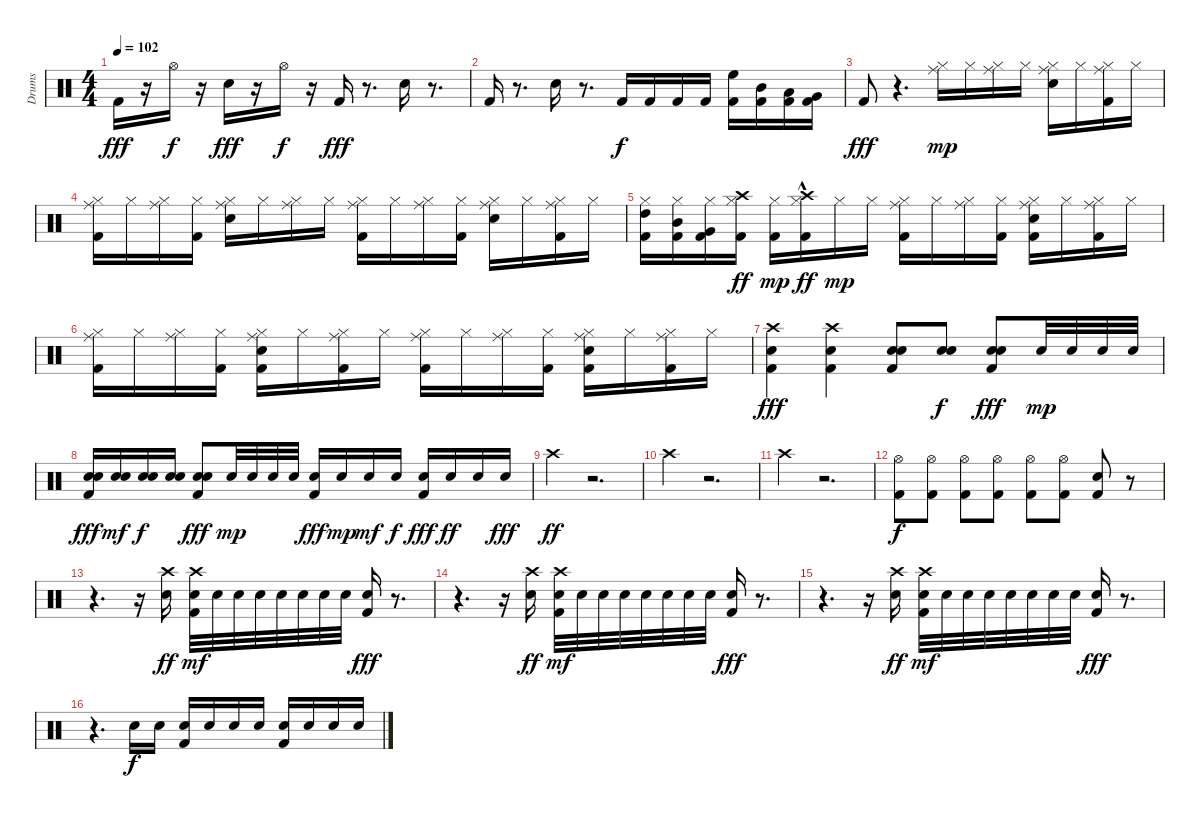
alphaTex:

\track ("Drums" "Drums") {instrument percussion}
\staff {score}
\articulation defaults
\ts (4 4)
\tempo 102
\clef neutral
\ks c "Kick (hit) 2".16{dy fff}
r.16 "Hi-Hat (open)".16{dy f} r.16 "Snare (hit) 2".16{dy fff} r.16 "Hi-Hat (open)".16{dy f} r.16 "Kick (hit) 2".16{dy fff} r.8{d} "Snare (hit) 2".16 r.8{d} |
"Kick (hit) 2".16 r.8{d} "Snare (hit) 2".16 r.8{d} "Kick (hit) 2".16{dy f} "Kick (hit) 2".16 "Kick (hit) 2".16 "Kick (hit) 2".16 ("Kick (hit) 2" "High Floor Tom (hit)").16 ("Kick (hit) 2" "Mid Tom (hit)").16 ("Kick (hit) 2" "Low Tom (hit)").16 ("Kick (hit) 2" "Very Low Tom (hit)").16 |
"Kick (hit) 2".8{dy fff} r.4{d} ("Ride (middle)" "Hi-Hat (closed)").16{dy mp} "Hi-Hat (closed)".16 ("Ride (middle)" "Hi-Hat (closed)").16 "Hi-Hat (closed)".16 ("Snare (hit) 2" "Ride (middle)" "Hi-Hat (closed)").16 "Hi-Hat (closed)".16 ("Ride (middle)" "Kick (hit) 2" "Hi-Hat (closed)").16 "Hi-Hat (closed)".16 |
("Ride (middle)" "Kick (hit) 2" "Hi-Hat (closed)").16 "Hi-Hat (closed)".16 ("Ride (middle)" "Hi-Hat (closed)").16 ("Kick (hit) 2" "Hi-Hat (closed)").16 ("Ride (middle)" "Snare (hit) 2" "Hi-Hat (closed)").16 "Hi-Hat (closed)".16 ("Ride (middle)" "Hi-Hat (closed)").16 "Hi-Hat (closed)".16 ("Ride (middle)" "Kick (hit) 2" "Hi-Hat (closed)").16 "Hi-Hat (closed)".16 ("Ride (middle)" "Hi-Hat (closed)").16 ("Kick (hit) 2" "Hi-Hat (closed)").16 ("Ride (middle)" "Snare (hit) 2" "Hi-Hat (closed)").16 "Hi-Hat (closed)".16 ("Ride (middle)" "Kick (hit) 2" "Hi-Hat (closed)").16 "Hi-Hat (closed)".16 |
("Kick (hit) 2" "High Tom (hit)" "Hi-Hat (closed)").16 ("Kick (hit) 2" "Mid Tom (hit)" "Hi-Hat (closed)").16 ("Kick (hit) 2" "Very Low Tom (hit)" "Hi-Hat (closed)").16 ("Kick (hit) 2" "Hi-Hat (closed)" "Crash high (hit)").16{dy ff} ("Kick (hit) 2" "Hi-Hat (closed)").16{dy mp} ("Kick (hit) 2"{hac} "Hi-Hat (closed)" "Crash high (hit)"{hac}).16{dy ff} "Hi-Hat (closed)".16{dy mp} "Hi-Hat (closed)".16 ("Kick (hit) 2" "Ride (middle)" "Hi-Hat (closed)").16 "Hi-Hat (closed)".16 ("Ride (middle)" "Hi-Hat (closed)").16 ("Kick (hit) 2" "Hi-Hat (closed)").16 ("Snare (hit) 2" "Ride (middle)" "Kick (hit) 2" "Hi-Hat (closed)").16 "Hi-Hat (closed)".16 ("Ride (middle)" "Kick (hit) 2" "Hi-Hat (closed)").16 "Hi-Hat (closed)".16 |
("Ride (middle)" "Kick (hit) 2" "Hi-Hat (closed)").16 "Hi-Hat (closed)".16 ("Ride (middle)" "Hi-Hat (closed)").16 ("Kick (hit) 2" "Hi-Hat (closed)").16 ("Ride (middle)" "Snare (hit) 2" "Kick (hit) 2" "Hi-Hat (closed)").16 "Hi-Hat (closed)".16 ("Ride (middle)" "Kick (hit) 2" "Hi-Hat (closed)").16 "Hi-Hat (closed)".16 ("Ride (middle)" "Kick (hit) 2" "Hi-Hat (closed)").16 "Hi-Hat (closed)".16 ("Ride (middle)" "Hi-Hat (closed)").16 ("Kick (hit) 2" "Hi-Hat (closed)").16 ("Ride (middle)" "Snare (hit) 2" "Kick (hit) 2" "Hi-Hat (closed)").16 "Hi-Hat (closed)".16 ("Ride (middle)" "Kick (hit) 2" "Hi-Hat (closed)").16 "Hi-Hat (closed)".16 |
("Crash high (hit)" "Kick (hit) 2" "Snare (hit) 2").4{dy fff} ("Crash high (hit)" "Kick (hit) 2" "Snare (hit) 2").4 ("Snare (hit) 2" "Kick (hit) 2" "Electric Snare (hit)").8 ("Snare (hit) 2" "Electric Snare (hit)").8{dy f} ("Snare (hit) 2" "Kick (hit) 2" "Electric Snare (hit)").8{dy fff} "Snare (hit) 2".32{dy mp} "Snare (hit) 2".32 "Snare (hit) 2".32 "Snare (hit) 2".32 |
("Snare (hit) 2" "Kick (hit) 2" "Electric Snare (hit)").16{dy fff} ("Snare (hit) 2" "Electric Snare (hit)").16{dy mf} ("Snare (hit) 2" "Electric Snare (hit)").16{dy f} ("Snare (hit) 2" "Electric Snare (hit)").16 ("Kick (hit) 2" "Snare (hit) 2" "Electric Snare (hit)").8{dy fff} "Snare (hit) 2".32{dy mp} "Snare (hit) 2".32 "Snare (hit) 2".32 "Snare (hit) 2".32 ("Snare (hit) 2" "Kick (hit) 2").16{dy fff} "Snare (hit) 2".16{dy mp} "Snare (hit) 2".16{dy mf} "Snare (hit) 2".16{dy f} ("Snare (hit) 2" "Kick (hit) 2").16{dy fff} "Snare (hit) 2".16{dy ff} "Snare (hit) 2".16 "Snare (hit) 2".16{dy fff} |
"Crash high (hit)".4{dy ff} r.2{d} |
"Crash high (hit)".4 r.2{d} |
"Crash high (hit)".4 r.2{d} |
("Hi-Hat (open)" "Kick (hit) 2").8{dy f} ("Hi-Hat (open)" "Kick (hit) 2").8 ("Hi-Hat (open)" "Kick (hit) 2").8 ("Hi-Hat (open)" "Kick (hit) 2").8 ("Hi-Hat (open)" "Kick (hit) 2").8 ("Hi-Hat (open)" "Kick (hit) 2").8 ("Snare (hit) 2" "Kick (hit) 2").8 r.8 |
r.4{d} r.16 ("Crash high (hit)" "Snare (hit) 2").16{dy ff} ("Kick (hit) 2" "Crash high (hit)" "Snare (hit) 2").32{dy mf} "Snare (hit) 2".32 "Snare (hit) 2".32 "Snare (hit) 2".32 "Snare (hit) 2".32 "Snare (hit) 2".32 "Snare (hit) 2".32 "Snare (hit) 2".32 ("Kick (hit) 2" "Snare (hit) 2").16{dy fff} r.8{d} |
r.4{d} r.16 ("Crash high (hit)" "Snare (hit) 2").16{dy ff} ("Kick (hit) 2" "Crash high (hit)" "Snare (hit) 2").32{dy mf} "Snare (hit) 2".32 "Snare (hit) 2".32 "Snare (hit) 2".32 "Snare (hit) 2".32 "Snare (hit) 2".32 "Snare (hit) 2".32 "Snare (hit) 2".32 ("Kick (hit) 2" "Snare (hit) 2").16{dy fff} r.8{d} |
r.4{d} r.16 ("Crash high (hit)" "Snare (hit) 2").16{dy ff} ("Kick (hit) 2" "Crash high (hit)" "Snare (hit) 2").32{dy mf} "Snare (hit) 2".32 "Snare (hit) 2".32 "Snare (hit) 2".32 "Snare (hit) 2".32 "Snare (hit) 2".32 "Snare (hit) 2".32 "Snare (hit) 2".32 ("Kick (hit) 2" "Snare (hit) 2").16{dy fff} r.8{d} |
r.4{d} "Snare (hit) 2".16{dy f} "Snare (hit) 2".16 ("Snare (hit) 2" "Kick (hit) 2").16 "Snare (hit) 2".16 "Snare (hit) 2".16 "Snare (hit) 2".16 ("Snare (hit) 2" "Kick (hit) 2").16 "Snare (hit) 2".16 "Snare (hit) 2".16 "Snare (hit) 2".16
